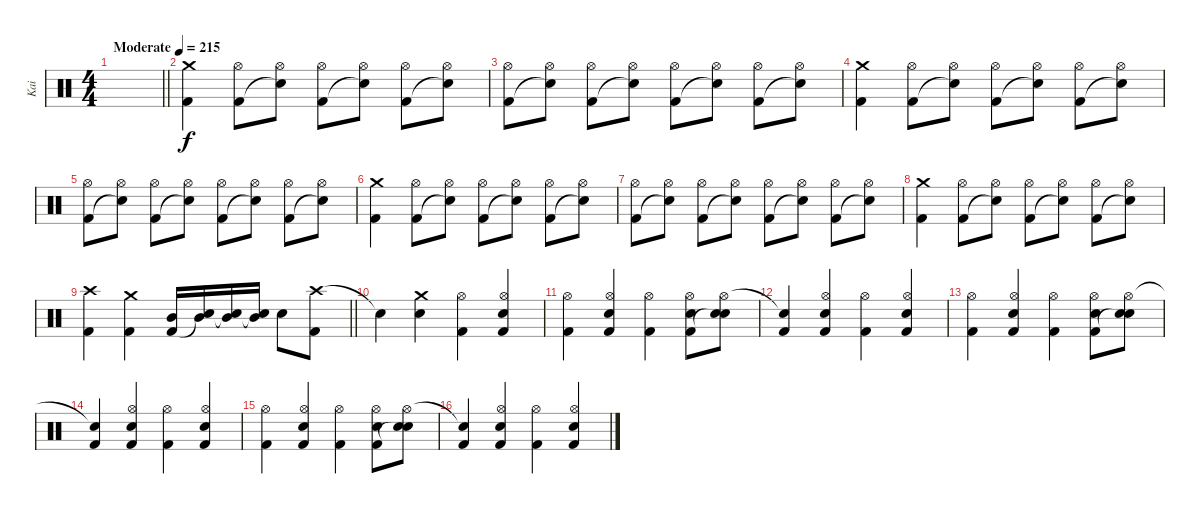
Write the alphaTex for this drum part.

\track ("Kai" "Kai") {instrument percussion}
\staff {score}
\articulation defaults
\ts (4 4)
\tempo (215 "Moderate")
\clef neutral
\barLineRight lightlight
\ks c
|
("Crash medium (hit)" "Kick (hit) 2").4 ("Hi-Hat (open)" "Kick (hit) 2").8 ("Hi-Hat (open)" "Snare (hit)"{t}).8 ("Hi-Hat (open)" "Kick (hit) 2").8 ("Hi-Hat (open)" "Snare (hit)"{t}).8 ("Hi-Hat (open)" "Kick (hit) 2").8 ("Hi-Hat (open)" "Snare (hit)"{t}).8 |
("Hi-Hat (open)" "Kick (hit) 2").8 ("Hi-Hat (open)" "Snare (hit)"{t}).8 ("Hi-Hat (open)" "Kick (hit) 2").8 ("Hi-Hat (open)" "Snare (hit)"{t}).8 ("Hi-Hat (open)" "Kick (hit) 2").8 ("Hi-Hat (open)" "Snare (hit)"{t}).8 ("Hi-Hat (open)" "Kick (hit) 2").8 ("Hi-Hat (open)" "Snare (hit)"{t}).8 |
("Crash medium (hit)" "Kick (hit) 2").4 ("Hi-Hat (open)" "Kick (hit) 2").8 ("Hi-Hat (open)" "Snare (hit)"{t}).8 ("Hi-Hat (open)" "Kick (hit) 2").8 ("Hi-Hat (open)" "Snare (hit)"{t}).8 ("Hi-Hat (open)" "Kick (hit) 2").8 ("Hi-Hat (open)" "Snare (hit)"{t}).8 |
("Hi-Hat (open)" "Kick (hit) 2").8 ("Hi-Hat (open)" "Snare (hit)"{t}).8 ("Hi-Hat (open)" "Kick (hit) 2").8 ("Hi-Hat (open)" "Snare (hit)"{t}).8 ("Hi-Hat (open)" "Kick (hit) 2").8 ("Hi-Hat (open)" "Snare (hit)"{t}).8 ("Hi-Hat (open)" "Kick (hit) 2").8 ("Hi-Hat (open)" "Snare (hit)"{t}).8 |
("Crash medium (hit)" "Kick (hit) 2").4 ("Hi-Hat (open)" "Kick (hit) 2").8 ("Hi-Hat (open)" "Snare (hit)"{t}).8 ("Hi-Hat (open)" "Kick (hit) 2").8 ("Hi-Hat (open)" "Snare (hit)"{t}).8 ("Hi-Hat (open)" "Kick (hit) 2").8 ("Hi-Hat (open)" "Snare (hit)"{t}).8 |
("Hi-Hat (open)" "Kick (hit) 2").8 ("Hi-Hat (open)" "Snare (hit)"{t}).8 ("Hi-Hat (open)" "Kick (hit) 2").8 ("Hi-Hat (open)" "Snare (hit)"{t}).8 ("Hi-Hat (open)" "Kick (hit) 2").8 ("Hi-Hat (open)" "Snare (hit)"{t}).8 ("Hi-Hat (open)" "Kick (hit) 2").8 ("Hi-Hat (open)" "Snare (hit)"{t}).8 |
("Crash medium (hit)" "Kick (hit) 2").4 ("Hi-Hat (open)" "Kick (hit) 2").8 ("Hi-Hat (open)" "Snare (hit)"{t}).8 ("Hi-Hat (open)" "Kick (hit) 2").8 ("Hi-Hat (open)" "Snare (hit)"{t}).8 ("Hi-Hat (open)" "Kick (hit) 2").8 ("Hi-Hat (open)" "Snare (hit)"{t}).8 |
\barLineRight lightlight
("Crash high (hit)" "Kick (hit) 2").4 ("Crash medium (hit)" "Kick (hit) 2").4 ("Mid Tom (hit)" "Kick (hit) 2").16 ("Mid Tom (hit)" "Snare (hit)"{t}).16 ("Mid Tom (hit)" "Snare (hit)"{t}).16 ("Mid Tom (hit)" "Snare (hit)"{t}).16 "Snare (hit) 2".8 ("Crash high (hit)" "Kick (hit) 2").8 |
"Snare (hit)"{t}.4 ("Crash medium (hit)" "Snare (hit) 2").4 ("Hi-Hat (open)" "Kick (hit) 2").4 ("Hi-Hat (open)" "Snare (hit) 2" "Kick (hit) 2").4 |
("Hi-Hat (open)" "Kick (hit) 2").4 ("Hi-Hat (open)" "Snare (hit) 2" "Kick (hit) 2").4 ("Hi-Hat (open)" "Kick (hit) 2").4 ("Hi-Hat (open)" "Snare (hit) 2" "Kick (hit) 2").8 ("Hi-Hat (open)" "Snare (hit) 2" "Snare (hit)"{t}).8 |
("Snare (hit)"{t} "Kick (hit) 2").4 ("Hi-Hat (open)" "Snare (hit) 2" "Kick (hit) 2").4 ("Hi-Hat (open)" "Kick (hit) 2").4 ("Hi-Hat (open)" "Snare (hit) 2" "Kick (hit) 2").4 |
("Hi-Hat (open)" "Kick (hit) 2").4 ("Hi-Hat (open)" "Snare (hit) 2" "Kick (hit) 2").4 ("Hi-Hat (open)" "Kick (hit) 2").4 ("Hi-Hat (open)" "Snare (hit) 2" "Kick (hit) 2").8 ("Hi-Hat (open)" "Snare (hit) 2" "Snare (hit)"{t}).8 |
("Snare (hit)"{t} "Kick (hit) 2").4 ("Hi-Hat (open)" "Snare (hit) 2" "Kick (hit) 2").4 ("Hi-Hat (open)" "Kick (hit) 2").4 ("Hi-Hat (open)" "Snare (hit) 2" "Kick (hit) 2").4 |
("Hi-Hat (open)" "Kick (hit) 2").4 ("Hi-Hat (open)" "Snare (hit) 2" "Kick (hit) 2").4 ("Hi-Hat (open)" "Kick (hit) 2").4 ("Hi-Hat (open)" "Snare (hit) 2" "Kick (hit) 2").8 ("Hi-Hat (open)" "Snare (hit) 2" "Snare (hit)"{t}).8 |
("Snare (hit)"{t} "Kick (hit) 2").4 ("Hi-Hat (open)" "Snare (hit) 2" "Kick (hit) 2").4 ("Hi-Hat (open)" "Kick (hit) 2").4 ("Hi-Hat (open)" "Snare (hit) 2" "Kick (hit) 2").4
